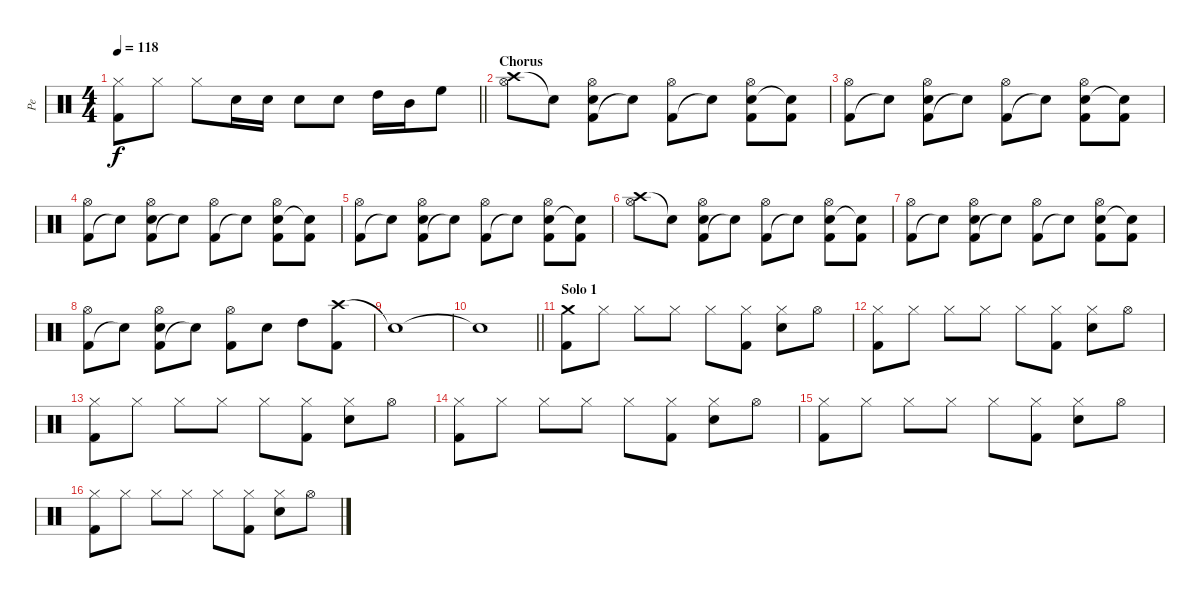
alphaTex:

\track ("Pe" "Pe") {instrument percussion}
\staff {score}
\articulation defaults
\ts (4 4)
\tempo 118
\clef neutral
\barLineRight lightlight
\ks c
("Hi-Hat (closed)" "Kick (hit) 2").8{dy f} "Hi-Hat (closed)".8 "Hi-Hat (closed)".8 "Electric Snare (hit)".16 "Electric Snare (hit)".16 "Electric Snare (hit)".8 "Electric Snare (hit)".8 "High Tom (hit)".16 "Mid Tom (hit)".16 "High Floor Tom (hit)".8 |
\section ("" "Chorus")
("Crash high (hit)" "Hi-Hat (open)").8 "Snare (hit)"{t}.8 ("Kick (hit) 2" "Electric Snare (hit)" "Hi-Hat (open)").8 "Snare (hit)"{t}.8 ("Kick (hit) 2" "Hi-Hat (open)").8 "Snare (hit)"{t}.8 ("Kick (hit) 2" "Electric Snare (hit)" "Hi-Hat (open)").8 ("Kick (hit) 2" "Snare (hit)"{t}).8 |
("Kick (hit) 2" "Hi-Hat (open)").8 "Snare (hit)"{t}.8 ("Kick (hit) 2" "Electric Snare (hit)" "Hi-Hat (open)").8 "Snare (hit)"{t}.8 ("Kick (hit) 2" "Hi-Hat (open)").8 "Snare (hit)"{t}.8 ("Kick (hit) 2" "Electric Snare (hit)" "Hi-Hat (open)").8 ("Kick (hit) 2" "Snare (hit)"{t}).8 |
("Kick (hit) 2" "Hi-Hat (open)").8 "Snare (hit)"{t}.8 ("Kick (hit) 2" "Electric Snare (hit)" "Hi-Hat (open)").8 "Snare (hit)"{t}.8 ("Kick (hit) 2" "Hi-Hat (open)").8 "Snare (hit)"{t}.8 ("Kick (hit) 2" "Electric Snare (hit)" "Hi-Hat (open)").8 ("Kick (hit) 2" "Snare (hit)"{t}).8 |
("Kick (hit) 2" "Hi-Hat (open)").8 "Snare (hit)"{t}.8 ("Kick (hit) 2" "Electric Snare (hit)" "Hi-Hat (open)").8 "Snare (hit)"{t}.8 ("Kick (hit) 2" "Hi-Hat (open)").8 "Snare (hit)"{t}.8 ("Kick (hit) 2" "Electric Snare (hit)" "Hi-Hat (open)").8 ("Kick (hit) 2" "Snare (hit)"{t}).8 |
("Crash high (hit)" "Hi-Hat (open)").8 "Snare (hit)"{t}.8 ("Kick (hit) 2" "Electric Snare (hit)" "Hi-Hat (open)").8 "Snare (hit)"{t}.8 ("Kick (hit) 2" "Hi-Hat (open)").8 "Snare (hit)"{t}.8 ("Kick (hit) 2" "Electric Snare (hit)" "Hi-Hat (open)").8 ("Kick (hit) 2" "Snare (hit)"{t}).8 |
("Kick (hit) 2" "Hi-Hat (open)").8 "Snare (hit)"{t}.8 ("Kick (hit) 2" "Electric Snare (hit)" "Hi-Hat (open)").8 "Snare (hit)"{t}.8 ("Kick (hit) 2" "Hi-Hat (open)").8 "Snare (hit)"{t}.8 ("Kick (hit) 2" "Electric Snare (hit)" "Hi-Hat (open)").8 ("Kick (hit) 2" "Snare (hit)"{t}).8 |
("Kick (hit) 2" "Hi-Hat (open)").8 "Snare (hit)"{t}.8 ("Kick (hit) 2" "Electric Snare (hit)" "Hi-Hat (open)").8 "Snare (hit)"{t}.8 ("Kick (hit) 2" "Hi-Hat (open)").8 "Electric Snare (hit)".8 "High Tom (hit)".8 ("Crash high (hit)" "Kick (hit) 2").8 |
"Snare (hit)"{t}.1 |
\barLineRight lightlight "Snare (hit)"{t}.1
|
\section ("" "Solo 1")
("Crash medium (hit)" "Kick (hit) 2").8 "Hi-Hat (closed)".8 "Hi-Hat (closed)".8 "Hi-Hat (closed)".8 "Hi-Hat (closed)".8 ("Hi-Hat (closed)" "Kick (hit) 2").8 ("Hi-Hat (closed)" "Electric Snare (hit)").8 "Hi-Hat (open)".8 |
("Hi-Hat (closed)" "Kick (hit) 2").8 "Hi-Hat (closed)".8 "Hi-Hat (closed)".8 "Hi-Hat (closed)".8 "Hi-Hat (closed)".8 ("Hi-Hat (closed)" "Kick (hit) 2").8 ("Hi-Hat (closed)" "Electric Snare (hit)").8 "Hi-Hat (open)".8 |
("Hi-Hat (closed)" "Kick (hit) 2").8 "Hi-Hat (closed)".8 "Hi-Hat (closed)".8 "Hi-Hat (closed)".8 "Hi-Hat (closed)".8 ("Hi-Hat (closed)" "Kick (hit) 2").8 ("Hi-Hat (closed)" "Electric Snare (hit)").8 "Hi-Hat (open)".8 |
("Hi-Hat (closed)" "Kick (hit) 2").8 "Hi-Hat (closed)".8 "Hi-Hat (closed)".8 "Hi-Hat (closed)".8 "Hi-Hat (closed)".8 ("Hi-Hat (closed)" "Kick (hit) 2").8 ("Hi-Hat (closed)" "Electric Snare (hit)").8 "Hi-Hat (open)".8 |
("Hi-Hat (closed)" "Kick (hit) 2").8 "Hi-Hat (closed)".8 "Hi-Hat (closed)".8 "Hi-Hat (closed)".8 "Hi-Hat (closed)".8 ("Hi-Hat (closed)" "Kick (hit) 2").8 ("Hi-Hat (closed)" "Electric Snare (hit)").8 "Hi-Hat (open)".8 |
("Hi-Hat (closed)" "Kick (hit) 2").8 "Hi-Hat (closed)".8 "Hi-Hat (closed)".8 "Hi-Hat (closed)".8 "Hi-Hat (closed)".8 ("Hi-Hat (closed)" "Kick (hit) 2").8 ("Hi-Hat (closed)" "Electric Snare (hit)").8 "Hi-Hat (open)".8
